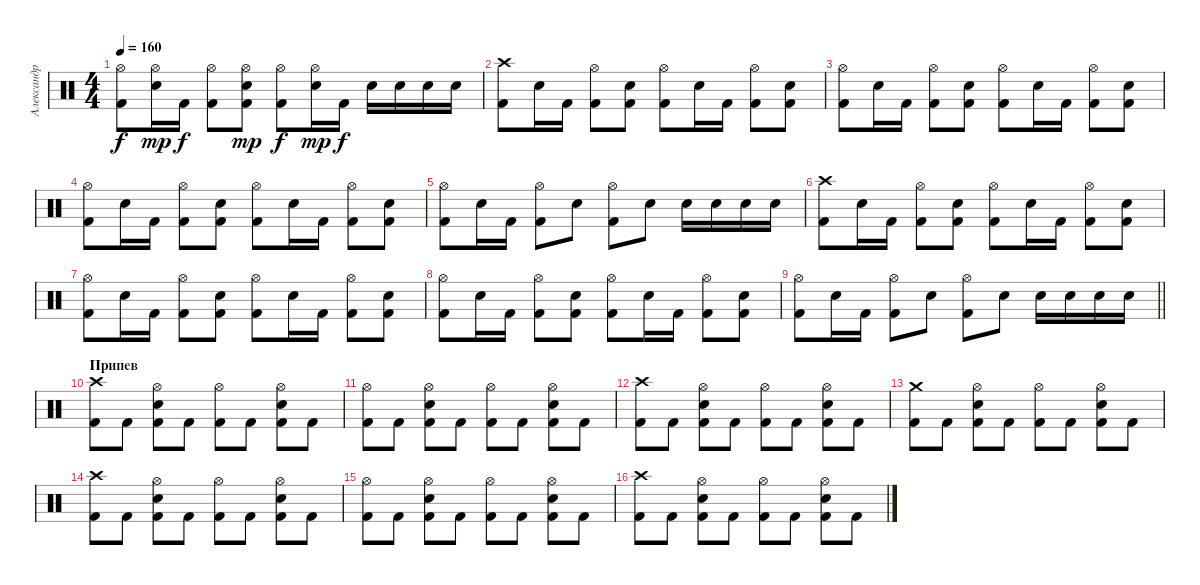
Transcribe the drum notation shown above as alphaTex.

\track ("Александр Карпухин" "Александр ") {instrument percussion}
\staff {score}
\articulation defaults
\ts (4 4)
\tempo 160
\clef neutral
\ks c
("Hi-Hat (open)" "Kick (hit) 2").8{dy f} ("Hi-Hat (open)" "Electric Snare (hit)").16{dy mp} "Kick (hit) 2".16{dy f} ("Hi-Hat (open)" "Kick (hit) 2").8 ("Hi-Hat (open)" "Electric Snare (hit)" "Kick (hit) 2").8{dy mp} ("Hi-Hat (open)" "Kick (hit) 2").8{dy f} ("Hi-Hat (open)" "Electric Snare (hit)").16{dy mp} "Kick (hit) 2".16{dy f} "Electric Snare (hit)".16 "Electric Snare (hit)".16 "Electric Snare (hit)".16 "Electric Snare (hit)".16 |
("Crash high (hit)" "Kick (hit) 2").8 "Electric Snare (hit)".16 "Kick (hit) 2".16 ("Hi-Hat (open)" "Kick (hit) 2").8 ("Electric Snare (hit)" "Kick (hit) 2").8 ("Hi-Hat (open)" "Kick (hit) 2").8 "Electric Snare (hit)".16 "Kick (hit) 2".16 ("Hi-Hat (open)" "Kick (hit) 2").8 ("Electric Snare (hit)" "Kick (hit) 2").8 |
("Hi-Hat (open)" "Kick (hit) 2").8 "Electric Snare (hit)".16 "Kick (hit) 2".16 ("Hi-Hat (open)" "Kick (hit) 2").8 ("Electric Snare (hit)" "Kick (hit) 2").8 ("Hi-Hat (open)" "Kick (hit) 2").8 "Electric Snare (hit)".16 "Kick (hit) 2".16 ("Hi-Hat (open)" "Kick (hit) 2").8 ("Electric Snare (hit)" "Kick (hit) 2").8 |
("Hi-Hat (open)" "Kick (hit) 2").8 "Electric Snare (hit)".16 "Kick (hit) 2".16 ("Hi-Hat (open)" "Kick (hit) 2").8 ("Electric Snare (hit)" "Kick (hit) 2").8 ("Hi-Hat (open)" "Kick (hit) 2").8 "Electric Snare (hit)".16 "Kick (hit) 2".16 ("Hi-Hat (open)" "Kick (hit) 2").8 ("Electric Snare (hit)" "Kick (hit) 2").8 |
("Hi-Hat (open)" "Kick (hit) 2").8 "Electric Snare (hit)".16 "Kick (hit) 2".16 ("Hi-Hat (open)" "Kick (hit) 2").8 "Electric Snare (hit)".8 ("Hi-Hat (open)" "Kick (hit) 2").8 "Electric Snare (hit)".8 "Electric Snare (hit)".16 "Electric Snare (hit)".16 "Electric Snare (hit)".16 "Electric Snare (hit)".16 |
("Crash high (hit)" "Kick (hit) 2").8 "Electric Snare (hit)".16 "Kick (hit) 2".16 ("Hi-Hat (open)" "Kick (hit) 2").8 ("Electric Snare (hit)" "Kick (hit) 2").8 ("Hi-Hat (open)" "Kick (hit) 2").8 "Electric Snare (hit)".16 "Kick (hit) 2".16 ("Hi-Hat (open)" "Kick (hit) 2").8 ("Electric Snare (hit)" "Kick (hit) 2").8 |
("Hi-Hat (open)" "Kick (hit) 2").8 "Electric Snare (hit)".16 "Kick (hit) 2".16 ("Hi-Hat (open)" "Kick (hit) 2").8 ("Electric Snare (hit)" "Kick (hit) 2").8 ("Hi-Hat (open)" "Kick (hit) 2").8 "Electric Snare (hit)".16 "Kick (hit) 2".16 ("Hi-Hat (open)" "Kick (hit) 2").8 ("Electric Snare (hit)" "Kick (hit) 2").8 |
("Hi-Hat (open)" "Kick (hit) 2").8 "Electric Snare (hit)".16 "Kick (hit) 2".16 ("Hi-Hat (open)" "Kick (hit) 2").8 ("Electric Snare (hit)" "Kick (hit) 2").8 ("Hi-Hat (open)" "Kick (hit) 2").8 "Electric Snare (hit)".16 "Kick (hit) 2".16 ("Hi-Hat (open)" "Kick (hit) 2").8 ("Electric Snare (hit)" "Kick (hit) 2").8 |
\barLineRight lightlight
("Hi-Hat (open)" "Kick (hit) 2").8 "Electric Snare (hit)".16 "Kick (hit) 2".16 ("Hi-Hat (open)" "Kick (hit) 2").8 "Electric Snare (hit)".8 ("Hi-Hat (open)" "Kick (hit) 2").8 "Electric Snare (hit)".8 "Electric Snare (hit)".16 "Electric Snare (hit)".16 "Electric Snare (hit)".16 "Electric Snare (hit)".16 |
\section ("" "Припев ")
("Crash high (hit)" "Kick (hit) 2").8 "Kick (hit) 2".8 ("Hi-Hat (open)" "Electric Snare (hit)" "Kick (hit) 2").8 "Kick (hit) 2".8 ("Hi-Hat (open)" "Kick (hit) 2").8 "Kick (hit) 2".8 ("Hi-Hat (open)" "Electric Snare (hit)" "Kick (hit) 2").8 "Kick (hit) 2".8 |
("Hi-Hat (open)" "Kick (hit) 2").8 "Kick (hit) 2".8 ("Hi-Hat (open)" "Electric Snare (hit)" "Kick (hit) 2").8 "Kick (hit) 2".8 ("Hi-Hat (open)" "Kick (hit) 2").8 "Kick (hit) 2".8 ("Hi-Hat (open)" "Electric Snare (hit)" "Kick (hit) 2").8 "Kick (hit) 2".8 |
("Crash high (hit)" "Kick (hit) 2").8 "Kick (hit) 2".8 ("Hi-Hat (open)" "Electric Snare (hit)" "Kick (hit) 2").8 "Kick (hit) 2".8 ("Hi-Hat (open)" "Kick (hit) 2").8 "Kick (hit) 2".8 ("Hi-Hat (open)" "Electric Snare (hit)" "Kick (hit) 2").8 "Kick (hit) 2".8 |
("Crash medium (hit)" "Kick (hit) 2").8 "Kick (hit) 2".8 ("Hi-Hat (open)" "Electric Snare (hit)" "Kick (hit) 2").8 "Kick (hit) 2".8 ("Hi-Hat (open)" "Kick (hit) 2").8 "Kick (hit) 2".8 ("Hi-Hat (open)" "Electric Snare (hit)" "Kick (hit) 2").8 "Kick (hit) 2".8 |
("Crash high (hit)" "Kick (hit) 2").8 "Kick (hit) 2".8 ("Hi-Hat (open)" "Electric Snare (hit)" "Kick (hit) 2").8 "Kick (hit) 2".8 ("Hi-Hat (open)" "Kick (hit) 2").8 "Kick (hit) 2".8 ("Hi-Hat (open)" "Electric Snare (hit)" "Kick (hit) 2").8 "Kick (hit) 2".8 |
("Hi-Hat (open)" "Kick (hit) 2").8 "Kick (hit) 2".8 ("Hi-Hat (open)" "Electric Snare (hit)" "Kick (hit) 2").8 "Kick (hit) 2".8 ("Hi-Hat (open)" "Kick (hit) 2").8 "Kick (hit) 2".8 ("Hi-Hat (open)" "Electric Snare (hit)" "Kick (hit) 2").8 "Kick (hit) 2".8 |
("Crash high (hit)" "Kick (hit) 2").8 "Kick (hit) 2".8 ("Hi-Hat (open)" "Electric Snare (hit)" "Kick (hit) 2").8 "Kick (hit) 2".8 ("Hi-Hat (open)" "Kick (hit) 2").8 "Kick (hit) 2".8 ("Hi-Hat (open)" "Electric Snare (hit)" "Kick (hit) 2").8 "Kick (hit) 2".8
